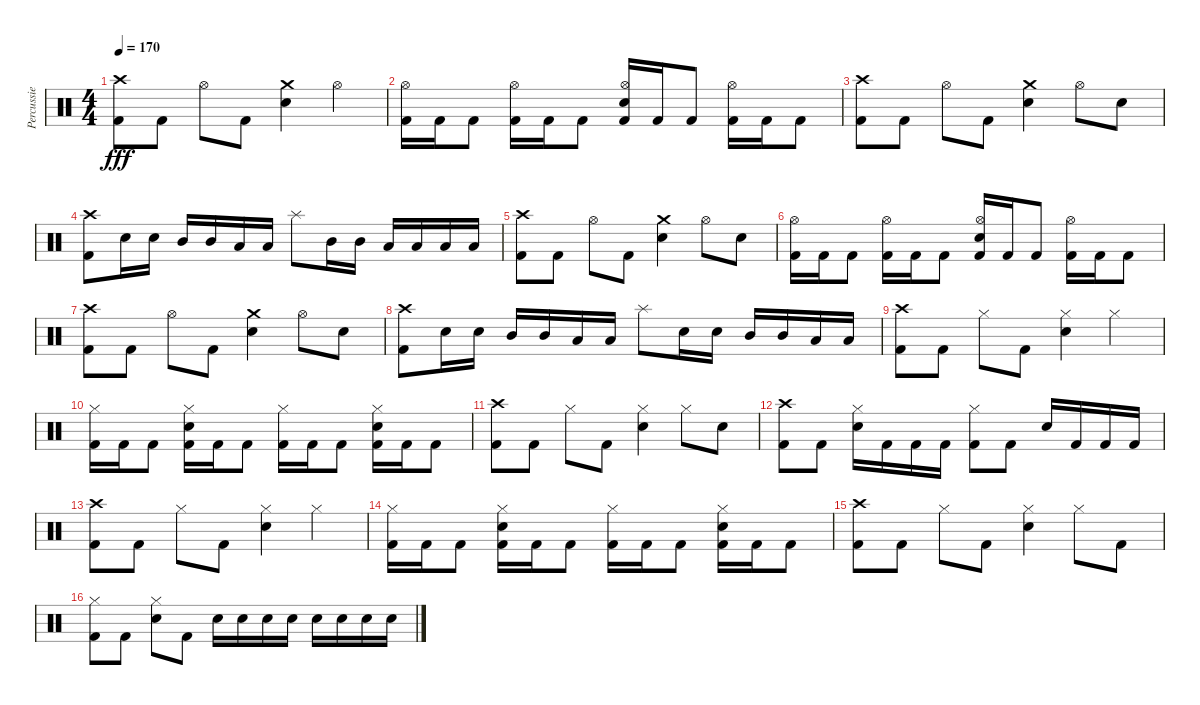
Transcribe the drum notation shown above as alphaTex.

\track ("Percussie" "Percussie") {instrument percussion}
\staff {score}
\articulation defaults
\ts (4 4)
\tempo 170
\clef neutral
\ks c
("Crash high (hit)" "Kick (hit) 2").8{dy fff} "Kick (hit) 2".8 "Hi-Hat (open)".8 "Kick (hit) 2".8 ("Crash medium (hit)" "Electric Snare (hit)").4 "Hi-Hat (open)".4 |
("Hi-Hat (open)" "Kick (hit) 2").16 "Kick (hit) 2".16 "Kick (hit) 2".8 ("Hi-Hat (open)" "Kick (hit) 2").16 "Kick (hit) 2".16 "Kick (hit) 2".8 ("Hi-Hat (open)" "Electric Snare (hit)" "Kick (hit) 2").16 "Kick (hit) 2".16 "Kick (hit) 2".8 ("Hi-Hat (open)" "Kick (hit) 2").16 "Kick (hit) 2".16 "Kick (hit) 2".8 |
("Crash high (hit)" "Kick (hit) 2").8 "Kick (hit) 2".8 "Hi-Hat (open)".8 "Kick (hit) 2".8 ("Crash medium (hit)" "Electric Snare (hit)").4 "Hi-Hat (open)".8 "Electric Snare (hit)".8 |
("Crash high (hit)" "Kick (hit) 2").8 "Electric Snare (hit)".16 "Electric Snare (hit)".16 "Mid Tom (hit)".16 "Mid Tom (hit)".16 "Low Tom (hit)".16 "Low Tom (hit)".16 "Splash (hit)".8 "Mid Tom (hit)".16 "Mid Tom (hit)".16 "Low Tom (hit)".16 "Low Tom (hit)".16 "Low Floor Tom (hit)".16 "Low Floor Tom (hit)".16 |
("Crash high (hit)" "Kick (hit) 2").8 "Kick (hit) 2".8 "Hi-Hat (open)".8 "Kick (hit) 2".8 ("Crash medium (hit)" "Electric Snare (hit)").4 "Hi-Hat (open)".8 "Electric Snare (hit)".8 |
("Hi-Hat (open)" "Kick (hit) 2").16 "Kick (hit) 2".16 "Kick (hit) 2".8 ("Hi-Hat (open)" "Kick (hit) 2").16 "Kick (hit) 2".16 "Kick (hit) 2".8 ("Hi-Hat (open)" "Electric Snare (hit)" "Kick (hit) 2").16 "Kick (hit) 2".16 "Kick (hit) 2".8 ("Hi-Hat (open)" "Kick (hit) 2").16 "Kick (hit) 2".16 "Kick (hit) 2".8 |
("Crash high (hit)" "Kick (hit) 2").8 "Kick (hit) 2".8 "Hi-Hat (open)".8 "Kick (hit) 2".8 ("Crash medium (hit)" "Electric Snare (hit)").4 "Hi-Hat (open)".8 "Electric Snare (hit)".8 |
("Crash high (hit)" "Kick (hit) 2").8 "Electric Snare (hit)".16 "Electric Snare (hit)".16 "Mid Tom (hit)".16 "Mid Tom (hit)".16 "Low Tom (hit)".16 "Low Tom (hit)".16 "Splash (hit)".8 "Electric Snare (hit)".16 "Electric Snare (hit)".16 "Mid Tom (hit)".16 "Mid Tom (hit)".16 "Low Floor Tom (hit)".16 "Low Floor Tom (hit)".16 |
("Crash high (hit)" "Kick (hit) 2").8 "Kick (hit) 2".8 "Hi-Hat (closed)".8 "Kick (hit) 2".8 ("Hi-Hat (closed)" "Electric Snare (hit)").4 "Hi-Hat (closed)".4 |
("Hi-Hat (closed)" "Kick (hit) 2").16 "Kick (hit) 2".16 "Kick (hit) 2".8 ("Hi-Hat (closed)" "Electric Snare (hit)" "Kick (hit) 2").16 "Kick (hit) 2".16 "Kick (hit) 2".8 ("Hi-Hat (closed)" "Kick (hit) 2").16 "Kick (hit) 2".16 "Kick (hit) 2".8 ("Hi-Hat (closed)" "Electric Snare (hit)" "Kick (hit) 2").16 "Kick (hit) 2".16 "Kick (hit) 2".8 |
("Crash high (hit)" "Kick (hit) 2").8 "Kick (hit) 2".8 "Hi-Hat (closed)".8 "Kick (hit) 2".8 ("Hi-Hat (closed)" "Electric Snare (hit)").4 "Hi-Hat (closed)".8 "Electric Snare (hit)".8 |
("Crash high (hit)" "Kick (hit) 2").8 "Kick (hit) 2".8 ("Hi-Hat (closed)" "Electric Snare (hit)").16 "Kick (hit) 2".16 "Kick (hit) 2".16 "Kick (hit) 2".16 ("Hi-Hat (closed)" "Kick (hit) 2").8 "Kick (hit) 2".8 "Electric Snare (hit)".16 "Kick (hit) 2".16 "Kick (hit) 2".16 "Kick (hit) 2".16 |
("Crash high (hit)" "Kick (hit) 2").8 "Kick (hit) 2".8 "Hi-Hat (closed)".8 "Kick (hit) 2".8 ("Hi-Hat (closed)" "Electric Snare (hit)").4 "Hi-Hat (closed)".4 |
("Hi-Hat (closed)" "Kick (hit) 2").16 "Kick (hit) 2".16 "Kick (hit) 2".8 ("Hi-Hat (closed)" "Electric Snare (hit)" "Kick (hit) 2").16 "Kick (hit) 2".16 "Kick (hit) 2".8 ("Hi-Hat (closed)" "Kick (hit) 2").16 "Kick (hit) 2".16 "Kick (hit) 2".8 ("Hi-Hat (closed)" "Electric Snare (hit)" "Kick (hit) 2").16 "Kick (hit) 2".16 "Kick (hit) 2".8 |
("Crash high (hit)" "Kick (hit) 2").8 "Kick (hit) 2".8 "Hi-Hat (closed)".8 "Kick (hit) 2".8 ("Hi-Hat (closed)" "Electric Snare (hit)").4 "Hi-Hat (closed)".8 "Kick (hit) 2".8 |
("Hi-Hat (closed)" "Kick (hit) 2").8 "Kick (hit) 2".8 ("Hi-Hat (closed)" "Electric Snare (hit)").8 "Kick (hit) 2".8 "Electric Snare (hit)".16 "Electric Snare (hit)".16 "Electric Snare (hit)".16 "Electric Snare (hit)".16 "Electric Snare (hit)".16 "Electric Snare (hit)".16 "Electric Snare (hit)".16 "Electric Snare (hit)".16
